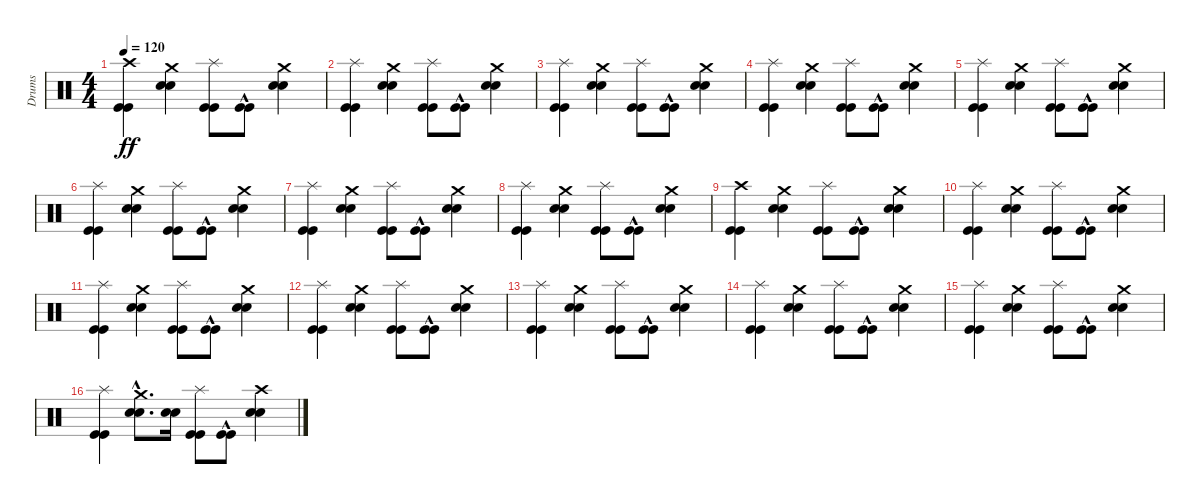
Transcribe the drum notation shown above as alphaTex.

\track ("Drums" "Drums") {instrument percussion}
\staff {score}
\articulation defaults
\ts (4 4)
\tempo 120
\clef neutral
\ks c
("Kick (hit)" "Kick (hit)" "Crash high (hit)").4{dy ff} ("Snare (hit) 2" "Snare (hit) 2" "Crash medium (hit)").4 ("Kick (hit)" "Kick (hit)" "Splash (hit)").8 ("Kick (hit)"{hac} "Kick (hit)"{hac}).8 ("Snare (hit) 2" "Snare (hit) 2" "Crash medium (hit)").4 |
("Kick (hit)" "Kick (hit)" "Splash (hit)").4 ("Snare (hit) 2" "Snare (hit) 2" "Crash medium (hit)").4 ("Kick (hit)" "Kick (hit)" "Splash (hit)").8 ("Kick (hit)"{hac} "Kick (hit)"{hac}).8 ("Snare (hit) 2" "Snare (hit) 2" "Crash medium (hit)").4 |
("Kick (hit)" "Kick (hit)" "Splash (hit)").4 ("Snare (hit) 2" "Snare (hit) 2" "Crash medium (hit)").4 ("Kick (hit)" "Kick (hit)" "Splash (hit)").8 ("Kick (hit)"{hac} "Kick (hit)"{hac}).8 ("Snare (hit) 2" "Snare (hit) 2" "Crash medium (hit)").4 |
("Kick (hit)" "Kick (hit)" "Splash (hit)").4 ("Snare (hit) 2" "Snare (hit) 2" "Crash medium (hit)").4 ("Kick (hit)" "Kick (hit)" "Splash (hit)").8 ("Kick (hit)"{hac} "Kick (hit)"{hac}).8 ("Snare (hit) 2" "Snare (hit) 2" "Crash medium (hit)").4 |
("Kick (hit)" "Kick (hit)" "Splash (hit)").4 ("Snare (hit) 2" "Snare (hit) 2" "Crash medium (hit)").4 ("Kick (hit)" "Kick (hit)" "Splash (hit)").8 ("Kick (hit)"{hac} "Kick (hit)"{hac}).8 ("Snare (hit) 2" "Snare (hit) 2" "Crash medium (hit)").4 |
("Kick (hit)" "Kick (hit)" "Splash (hit)").4 ("Snare (hit) 2" "Snare (hit) 2" "Crash medium (hit)").4 ("Kick (hit)" "Kick (hit)" "Splash (hit)").8 ("Kick (hit)"{hac} "Kick (hit)"{hac}).8 ("Snare (hit) 2" "Snare (hit) 2" "Crash medium (hit)").4 |
("Kick (hit)" "Kick (hit)" "Splash (hit)").4 ("Snare (hit) 2" "Snare (hit) 2" "Crash medium (hit)").4 ("Kick (hit)" "Kick (hit)" "Splash (hit)").8 ("Kick (hit)"{hac} "Kick (hit)"{hac}).8 ("Snare (hit) 2" "Snare (hit) 2" "Crash medium (hit)").4 |
("Kick (hit)" "Kick (hit)" "Splash (hit)").4 ("Snare (hit) 2" "Snare (hit) 2" "Crash medium (hit)").4 ("Kick (hit)" "Kick (hit)" "Splash (hit)").8 ("Kick (hit)"{hac} "Kick (hit)"{hac}).8 ("Snare (hit) 2" "Snare (hit) 2" "Crash medium (hit)").4 |
("Kick (hit)" "Kick (hit)" "Crash high (hit)").4 ("Snare (hit) 2" "Snare (hit) 2" "Crash medium (hit)").4 ("Kick (hit)" "Kick (hit)" "Splash (hit)").8 ("Kick (hit)"{hac} "Kick (hit)"{hac}).8 ("Snare (hit) 2" "Snare (hit) 2" "Crash medium (hit)").4 |
("Kick (hit)" "Kick (hit)" "Splash (hit)").4 ("Snare (hit) 2" "Snare (hit) 2" "Crash medium (hit)").4 ("Kick (hit)" "Kick (hit)" "Splash (hit)").8 ("Kick (hit)"{hac} "Kick (hit)"{hac}).8 ("Snare (hit) 2" "Snare (hit) 2" "Crash medium (hit)").4 |
("Kick (hit)" "Kick (hit)" "Splash (hit)").4 ("Snare (hit) 2" "Snare (hit) 2" "Crash medium (hit)").4 ("Kick (hit)" "Kick (hit)" "Splash (hit)").8 ("Kick (hit)"{hac} "Kick (hit)"{hac}).8 ("Snare (hit) 2" "Snare (hit) 2" "Crash medium (hit)").4 |
("Kick (hit)" "Kick (hit)" "Splash (hit)").4 ("Snare (hit) 2" "Snare (hit) 2" "Crash medium (hit)").4 ("Kick (hit)" "Kick (hit)" "Splash (hit)").8 ("Kick (hit)"{hac} "Kick (hit)"{hac}).8 ("Snare (hit) 2" "Snare (hit) 2" "Crash medium (hit)").4 |
("Kick (hit)" "Kick (hit)" "Splash (hit)").4 ("Snare (hit) 2" "Snare (hit) 2" "Crash medium (hit)").4 ("Kick (hit)" "Kick (hit)" "Splash (hit)").8 ("Kick (hit)"{hac} "Kick (hit)"{hac}).8 ("Snare (hit) 2" "Snare (hit) 2" "Crash medium (hit)").4 |
("Kick (hit)" "Kick (hit)" "Splash (hit)").4 ("Snare (hit) 2" "Snare (hit) 2" "Crash medium (hit)").4 ("Kick (hit)" "Kick (hit)" "Splash (hit)").8 ("Kick (hit)"{hac} "Kick (hit)"{hac}).8 ("Snare (hit) 2" "Snare (hit) 2" "Crash medium (hit)").4 |
("Kick (hit)" "Kick (hit)" "Splash (hit)").4 ("Snare (hit) 2" "Snare (hit) 2" "Crash medium (hit)").4 ("Kick (hit)" "Kick (hit)" "Splash (hit)").8 ("Kick (hit)"{hac} "Kick (hit)"{hac}).8 ("Snare (hit) 2" "Snare (hit) 2" "Crash medium (hit)").4 |
("Kick (hit)" "Kick (hit)" "Splash (hit)").4 ("Snare (hit) 2"{hac} "Snare (hit) 2"{hac} "Crash medium (hit)").8{d} ("Snare (hit) 2" "Snare (hit) 2").16 ("Kick (hit)" "Kick (hit)" "Splash (hit)").8 ("Kick (hit)"{hac} "Kick (hit)"{hac}).8 ("Snare (hit) 2" "Snare (hit) 2" "Crash high (hit)").4
